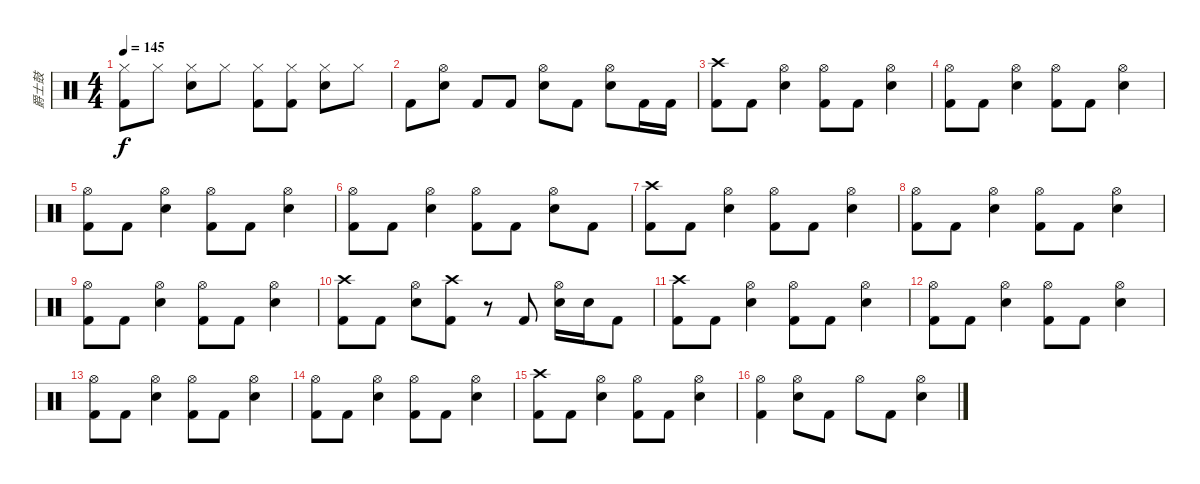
\track ("爵士鼓" "爵士鼓") {instrument percussion}
\staff {score}
\articulation defaults
\ts (4 4)
\tempo 145
\clef neutral
\ks c
("Hi-Hat (closed)" "Kick (hit) 2").8{dy f} "Hi-Hat (closed)".8 ("Hi-Hat (closed)" "Electric Snare (hit)").8 "Hi-Hat (closed)".8 ("Hi-Hat (closed)" "Kick (hit) 2").8 ("Hi-Hat (closed)" "Kick (hit) 2").8 ("Hi-Hat (closed)" "Electric Snare (hit)").8 "Hi-Hat (closed)".8 |
"Kick (hit) 2".8 ("Hi-Hat (open)" "Electric Snare (hit)").8 "Kick (hit) 2".8 "Kick (hit) 2".8 ("Hi-Hat (open)" "Electric Snare (hit)").8 "Kick (hit) 2".8 ("Hi-Hat (open)" "Electric Snare (hit)").8 "Kick (hit) 2".16 "Kick (hit) 2".16 |
("Crash high (hit)" "Kick (hit) 2").8 "Kick (hit) 2".8 ("Hi-Hat (open)" "Electric Snare (hit)").4 ("Hi-Hat (open)" "Kick (hit) 2").8 "Kick (hit) 2".8 ("Hi-Hat (open)" "Electric Snare (hit)").4 |
("Hi-Hat (open)" "Kick (hit) 2").8 "Kick (hit) 2".8 ("Hi-Hat (open)" "Electric Snare (hit)").4 ("Hi-Hat (open)" "Kick (hit) 2").8 "Kick (hit) 2".8 ("Hi-Hat (open)" "Electric Snare (hit)").4 |
("Hi-Hat (open)" "Kick (hit) 2").8 "Kick (hit) 2".8 ("Hi-Hat (open)" "Electric Snare (hit)").4 ("Hi-Hat (open)" "Kick (hit) 2").8 "Kick (hit) 2".8 ("Hi-Hat (open)" "Electric Snare (hit)").4 |
("Hi-Hat (open)" "Kick (hit) 2").8 "Kick (hit) 2".8 ("Hi-Hat (open)" "Electric Snare (hit)").4 ("Hi-Hat (open)" "Kick (hit) 2").8 "Kick (hit) 2".8 ("Hi-Hat (open)" "Electric Snare (hit)").8 "Kick (hit) 2".8 |
("Crash high (hit)" "Kick (hit) 2").8 "Kick (hit) 2".8 ("Hi-Hat (open)" "Electric Snare (hit)").4 ("Hi-Hat (open)" "Kick (hit) 2").8 "Kick (hit) 2".8 ("Hi-Hat (open)" "Electric Snare (hit)").4 |
("Hi-Hat (open)" "Kick (hit) 2").8 "Kick (hit) 2".8 ("Hi-Hat (open)" "Electric Snare (hit)").4 ("Hi-Hat (open)" "Kick (hit) 2").8 "Kick (hit) 2".8 ("Hi-Hat (open)" "Electric Snare (hit)").4 |
("Hi-Hat (open)" "Kick (hit) 2").8 "Kick (hit) 2".8 ("Hi-Hat (open)" "Electric Snare (hit)").4 ("Hi-Hat (open)" "Kick (hit) 2").8 "Kick (hit) 2".8 ("Hi-Hat (open)" "Electric Snare (hit)").4 |
("Crash high (hit)" "Kick (hit) 2").8 "Kick (hit) 2".8 ("Hi-Hat (open)" "Electric Snare (hit)").8 ("Crash high (hit)" "Kick (hit) 2").8 r.8 "Kick (hit) 2".8 ("Hi-Hat (open)" "Electric Snare (hit)").16 "Electric Snare (hit)".16 "Kick (hit) 2".8 |
("Crash high (hit)" "Kick (hit) 2").8 "Kick (hit) 2".8 ("Hi-Hat (open)" "Electric Snare (hit)").4 ("Hi-Hat (open)" "Kick (hit) 2").8 "Kick (hit) 2".8 ("Hi-Hat (open)" "Electric Snare (hit)").4 |
("Hi-Hat (open)" "Kick (hit) 2").8 "Kick (hit) 2".8 ("Hi-Hat (open)" "Electric Snare (hit)").4 ("Hi-Hat (open)" "Kick (hit) 2").8 "Kick (hit) 2".8 ("Hi-Hat (open)" "Electric Snare (hit)").4 |
("Hi-Hat (open)" "Kick (hit) 2").8 "Kick (hit) 2".8 ("Hi-Hat (open)" "Electric Snare (hit)").4 ("Hi-Hat (open)" "Kick (hit) 2").8 "Kick (hit) 2".8 ("Hi-Hat (open)" "Electric Snare (hit)").4 |
("Hi-Hat (open)" "Kick (hit) 2").8 "Kick (hit) 2".8 ("Hi-Hat (open)" "Electric Snare (hit)").4 ("Hi-Hat (open)" "Kick (hit) 2").8 "Kick (hit) 2".8 ("Hi-Hat (open)" "Electric Snare (hit)").4 |
("Crash high (hit)" "Kick (hit) 2").8 "Kick (hit) 2".8 ("Hi-Hat (open)" "Electric Snare (hit)").4 ("Hi-Hat (open)" "Kick (hit) 2").8 "Kick (hit) 2".8 ("Hi-Hat (open)" "Electric Snare (hit)").4 |
("Hi-Hat (open)" "Kick (hit) 2").4 ("Hi-Hat (open)" "Electric Snare (hit)").8 "Kick (hit) 2".8 "Hi-Hat (open)".8 "Kick (hit) 2".8 ("Hi-Hat (open)" "Electric Snare (hit)").4
